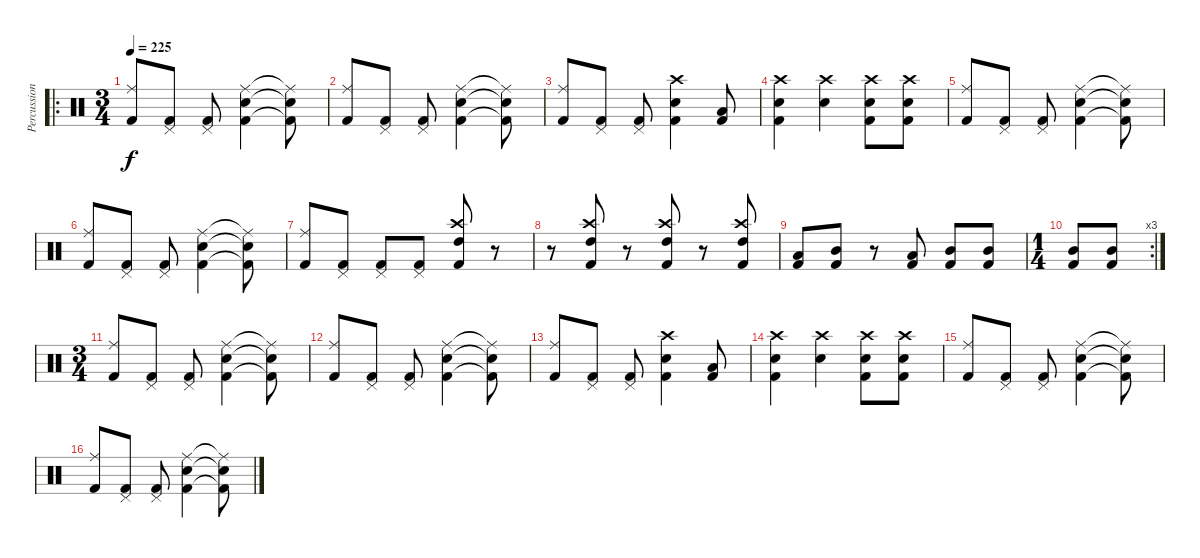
\track ("Percussion" "Percussion") {instrument percussion}
\staff {score}
\articulation defaults
\ro
\ts (3 4)
\tempo 225
\clef neutral
\ks c
("Ride (middle)" "Kick (hit) 2").8{dy f} ("Pedal Hi-Hat (hit)" "Kick (hit) 2").8 ("Pedal Hi-Hat (hit)" "Kick (hit) 2").8 ("Ride (middle)" "Snare (hit) 2" "Kick (hit) 2").4 ("Ride (middle)"{t} "Snare (hit) 2"{t} "Kick (hit) 2"{t}).8 |
("Ride (middle)" "Kick (hit) 2").8 ("Pedal Hi-Hat (hit)" "Kick (hit) 2").8 ("Pedal Hi-Hat (hit)" "Kick (hit) 2").8 ("Ride (middle)" "Snare (hit) 2" "Kick (hit) 2").4 ("Ride (middle)"{t} "Snare (hit) 2"{t} "Kick (hit) 2"{t}).8 |
("Ride (middle)" "Kick (hit) 2").8 ("Pedal Hi-Hat (hit)" "Kick (hit) 2").8 ("Pedal Hi-Hat (hit)" "Kick (hit) 2").8 ("Crash high (hit)" "Snare (hit) 2" "Kick (hit) 2").4 ("Low Tom (hit)" "Kick (hit) 2").8 |
("Crash high (hit)" "Snare (hit) 2" "Kick (hit) 2").4 ("Crash high (hit)" "Snare (hit) 2").4 ("Crash high (hit)" "Snare (hit) 2" "Kick (hit) 2").8 ("Crash high (hit)" "Snare (hit) 2" "Kick (hit) 2").8 |
("Ride (middle)" "Kick (hit) 2").8 ("Pedal Hi-Hat (hit)" "Kick (hit) 2").8 ("Pedal Hi-Hat (hit)" "Kick (hit) 2").8 ("Ride (middle)" "Snare (hit) 2" "Kick (hit) 2").4 ("Ride (middle)"{t} "Snare (hit) 2"{t} "Kick (hit) 2"{t}).8 |
("Ride (middle)" "Kick (hit) 2").8 ("Pedal Hi-Hat (hit)" "Kick (hit) 2").8 ("Pedal Hi-Hat (hit)" "Kick (hit) 2").8 ("Ride (middle)" "Snare (hit) 2" "Kick (hit) 2").4 ("Ride (middle)"{t} "Snare (hit) 2"{t} "Kick (hit) 2"{t}).8 |
("Ride (middle)" "Kick (hit) 2").8 ("Pedal Hi-Hat (hit)" "Kick (hit) 2").8 ("Pedal Hi-Hat (hit)" "Kick (hit) 2").8 ("Pedal Hi-Hat (hit)" "Kick (hit) 2").8 ("Crash high (hit)" "High Tom (hit)" "Kick (hit) 2").8 r.8 |
r.8 ("Crash high (hit)" "High Tom (hit)" "Kick (hit) 2").8 r.8 ("Crash high (hit)" "High Tom (hit)" "Kick (hit) 2").8 r.8 ("Crash high (hit)" "High Tom (hit)" "Kick (hit) 2").8 |
("Low Tom (hit)" "Kick (hit) 2").8 ("Mid Tom (hit)" "Kick (hit) 2").8 r.8 ("Low Tom (hit)" "Kick (hit) 2").8 ("Mid Tom (hit)" "Kick (hit) 2").8 ("Mid Tom (hit)" "Kick (hit) 2").8 |
\rc 3
\ts (1 4)
("Mid Tom (hit)" "Kick (hit) 2").8 ("Mid Tom (hit)" "Kick (hit) 2").8 |
\ts (3 4)
("Ride (middle)" "Kick (hit) 2").8 ("Pedal Hi-Hat (hit)" "Kick (hit) 2").8 ("Pedal Hi-Hat (hit)" "Kick (hit) 2").8 ("Ride (middle)" "Snare (hit) 2" "Kick (hit) 2").4 ("Ride (middle)"{t} "Snare (hit) 2"{t} "Kick (hit) 2"{t}).8 |
("Ride (middle)" "Kick (hit) 2").8 ("Pedal Hi-Hat (hit)" "Kick (hit) 2").8 ("Pedal Hi-Hat (hit)" "Kick (hit) 2").8 ("Ride (middle)" "Snare (hit) 2" "Kick (hit) 2").4 ("Ride (middle)"{t} "Snare (hit) 2"{t} "Kick (hit) 2"{t}).8 |
("Ride (middle)" "Kick (hit) 2").8 ("Pedal Hi-Hat (hit)" "Kick (hit) 2").8 ("Pedal Hi-Hat (hit)" "Kick (hit) 2").8 ("Crash high (hit)" "Snare (hit) 2" "Kick (hit) 2").4 ("Low Tom (hit)" "Kick (hit) 2").8 |
("Crash high (hit)" "Snare (hit) 2" "Kick (hit) 2").4 ("Crash high (hit)" "Snare (hit) 2").4 ("Crash high (hit)" "Snare (hit) 2" "Kick (hit) 2").8 ("Crash high (hit)" "Snare (hit) 2" "Kick (hit) 2").8 |
("Ride (middle)" "Kick (hit) 2").8 ("Pedal Hi-Hat (hit)" "Kick (hit) 2").8 ("Pedal Hi-Hat (hit)" "Kick (hit) 2").8 ("Ride (middle)" "Snare (hit) 2" "Kick (hit) 2").4 ("Ride (middle)"{t} "Snare (hit) 2"{t} "Kick (hit) 2"{t}).8 |
("Ride (middle)" "Kick (hit) 2").8 ("Pedal Hi-Hat (hit)" "Kick (hit) 2").8 ("Pedal Hi-Hat (hit)" "Kick (hit) 2").8 ("Ride (middle)" "Snare (hit) 2" "Kick (hit) 2").4 ("Ride (middle)"{t} "Snare (hit) 2"{t} "Kick (hit) 2"{t}).8
